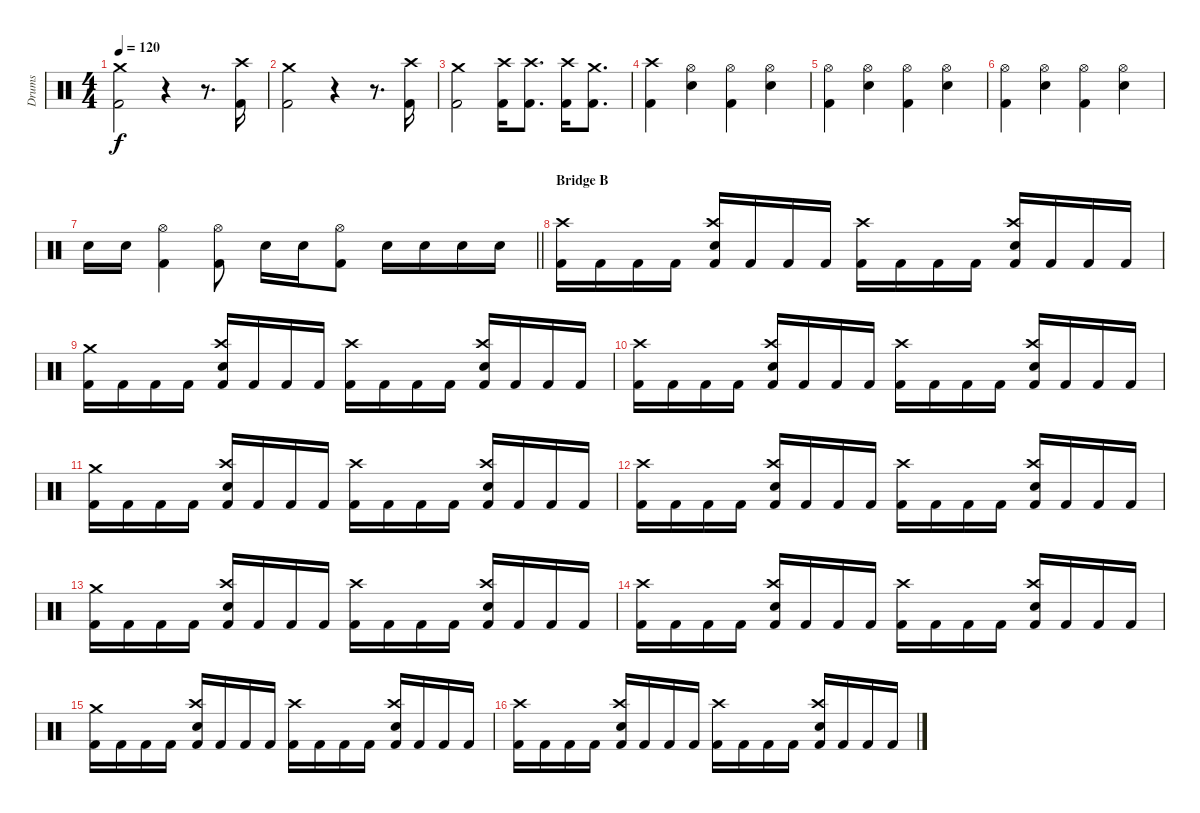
\track ("Drums" "Drums") {instrument percussion}
\staff {score}
\articulation defaults
\ts (4 4)
\tempo 120
\clef neutral
\ks c
("Crash medium (hit)" "Kick (hit) 2").2{dy f} r.4 r.8{d} ("Crash high (hit)" "Kick (hit) 2").16 |
("Crash medium (hit)" "Kick (hit) 2").2 r.4 r.8{d} ("Crash high (hit)" "Kick (hit) 2").16 |
("Crash medium (hit)" "Kick (hit) 2").2 ("Crash high (hit)" "Kick (hit) 2").16 ("Crash high (hit)" "Kick (hit) 2").8{d} ("Crash high (hit)" "Kick (hit) 2").16 ("Crash medium (hit)" "Kick (hit) 2").8{d} |
("Crash high (hit)" "Kick (hit) 2").4 ("Hi-Hat (open)" "Snare (hit) 2").4 ("Hi-Hat (open)" "Kick (hit) 2").4 ("Hi-Hat (open)" "Snare (hit) 2").4 |
("Hi-Hat (open)" "Kick (hit) 2").4 ("Hi-Hat (open)" "Snare (hit) 2").4 ("Hi-Hat (open)" "Kick (hit) 2").4 ("Hi-Hat (open)" "Snare (hit) 2").4 |
("Hi-Hat (open)" "Kick (hit) 2").4 ("Hi-Hat (open)" "Snare (hit) 2").4 ("Hi-Hat (open)" "Kick (hit) 2").4 ("Hi-Hat (open)" "Snare (hit) 2").4 |
\barLineRight lightlight "Snare (hit) 2".16 "Snare (hit) 2".16
("Hi-Hat (open)" "Kick (hit) 2").4 ("Hi-Hat (open)" "Kick (hit) 2").8 "Snare (hit) 2".16 "Snare (hit) 2".16 ("Hi-Hat (open)" "Kick (hit) 2").8 "Snare (hit) 2".16 "Snare (hit) 2".16 "Snare (hit) 2".16 "Snare (hit) 2".16 |
\section ("" "Bridge B")
("Crash high (hit)" "Kick (hit) 2").16 "Kick (hit) 2".16 "Kick (hit) 2".16 "Kick (hit) 2".16 ("Crash high (hit)" "Snare (hit) 2" "Kick (hit) 2").16 "Kick (hit) 2".16 "Kick (hit) 2".16 "Kick (hit) 2".16 ("Crash high (hit)" "Kick (hit) 2").16 "Kick (hit) 2".16 "Kick (hit) 2".16 "Kick (hit) 2".16 ("Crash high (hit)" "Snare (hit) 2" "Kick (hit) 2").16 "Kick (hit) 2".16 "Kick (hit) 2".16 "Kick (hit) 2".16 |
("Crash medium (hit)" "Kick (hit) 2").16 "Kick (hit) 2".16 "Kick (hit) 2".16 "Kick (hit) 2".16 ("Crash high (hit)" "Snare (hit) 2" "Kick (hit) 2").16 "Kick (hit) 2".16 "Kick (hit) 2".16 "Kick (hit) 2".16 ("Crash high (hit)" "Kick (hit) 2").16 "Kick (hit) 2".16 "Kick (hit) 2".16 "Kick (hit) 2".16 ("Crash high (hit)" "Snare (hit) 2" "Kick (hit) 2").16 "Kick (hit) 2".16 "Kick (hit) 2".16 "Kick (hit) 2".16 |
("Crash high (hit)" "Kick (hit) 2").16 "Kick (hit) 2".16 "Kick (hit) 2".16 "Kick (hit) 2".16 ("Crash high (hit)" "Snare (hit) 2" "Kick (hit) 2").16 "Kick (hit) 2".16 "Kick (hit) 2".16 "Kick (hit) 2".16 ("Crash high (hit)" "Kick (hit) 2").16 "Kick (hit) 2".16 "Kick (hit) 2".16 "Kick (hit) 2".16 ("Crash high (hit)" "Snare (hit) 2" "Kick (hit) 2").16 "Kick (hit) 2".16 "Kick (hit) 2".16 "Kick (hit) 2".16 |
("Crash medium (hit)" "Kick (hit) 2").16 "Kick (hit) 2".16 "Kick (hit) 2".16 "Kick (hit) 2".16 ("Crash high (hit)" "Snare (hit) 2" "Kick (hit) 2").16 "Kick (hit) 2".16 "Kick (hit) 2".16 "Kick (hit) 2".16 ("Crash high (hit)" "Kick (hit) 2").16 "Kick (hit) 2".16 "Kick (hit) 2".16 "Kick (hit) 2".16 ("Crash high (hit)" "Snare (hit) 2" "Kick (hit) 2").16 "Kick (hit) 2".16 "Kick (hit) 2".16 "Kick (hit) 2".16 |
("Crash high (hit)" "Kick (hit) 2").16 "Kick (hit) 2".16 "Kick (hit) 2".16 "Kick (hit) 2".16 ("Crash high (hit)" "Snare (hit) 2" "Kick (hit) 2").16 "Kick (hit) 2".16 "Kick (hit) 2".16 "Kick (hit) 2".16 ("Crash high (hit)" "Kick (hit) 2").16 "Kick (hit) 2".16 "Kick (hit) 2".16 "Kick (hit) 2".16 ("Crash high (hit)" "Snare (hit) 2" "Kick (hit) 2").16 "Kick (hit) 2".16 "Kick (hit) 2".16 "Kick (hit) 2".16 |
("Crash medium (hit)" "Kick (hit) 2").16 "Kick (hit) 2".16 "Kick (hit) 2".16 "Kick (hit) 2".16 ("Crash high (hit)" "Snare (hit) 2" "Kick (hit) 2").16 "Kick (hit) 2".16 "Kick (hit) 2".16 "Kick (hit) 2".16 ("Crash high (hit)" "Kick (hit) 2").16 "Kick (hit) 2".16 "Kick (hit) 2".16 "Kick (hit) 2".16 ("Crash high (hit)" "Snare (hit) 2" "Kick (hit) 2").16 "Kick (hit) 2".16 "Kick (hit) 2".16 "Kick (hit) 2".16 |
("Crash high (hit)" "Kick (hit) 2").16 "Kick (hit) 2".16 "Kick (hit) 2".16 "Kick (hit) 2".16 ("Crash high (hit)" "Snare (hit) 2" "Kick (hit) 2").16 "Kick (hit) 2".16 "Kick (hit) 2".16 "Kick (hit) 2".16 ("Crash high (hit)" "Kick (hit) 2").16 "Kick (hit) 2".16 "Kick (hit) 2".16 "Kick (hit) 2".16 ("Crash high (hit)" "Snare (hit) 2" "Kick (hit) 2").16 "Kick (hit) 2".16 "Kick (hit) 2".16 "Kick (hit) 2".16 |
("Crash medium (hit)" "Kick (hit) 2").16 "Kick (hit) 2".16 "Kick (hit) 2".16 "Kick (hit) 2".16 ("Crash high (hit)" "Snare (hit) 2" "Kick (hit) 2").16 "Kick (hit) 2".16 "Kick (hit) 2".16 "Kick (hit) 2".16 ("Crash high (hit)" "Kick (hit) 2").16 "Kick (hit) 2".16 "Kick (hit) 2".16 "Kick (hit) 2".16 ("Crash high (hit)" "Snare (hit) 2" "Kick (hit) 2").16 "Kick (hit) 2".16 "Kick (hit) 2".16 "Kick (hit) 2".16 |
("Crash high (hit)" "Kick (hit) 2").16 "Kick (hit) 2".16 "Kick (hit) 2".16 "Kick (hit) 2".16 ("Crash high (hit)" "Snare (hit) 2" "Kick (hit) 2").16 "Kick (hit) 2".16 "Kick (hit) 2".16 "Kick (hit) 2".16 ("Crash high (hit)" "Kick (hit) 2").16 "Kick (hit) 2".16 "Kick (hit) 2".16 "Kick (hit) 2".16 ("Crash high (hit)" "Snare (hit) 2" "Kick (hit) 2").16 "Kick (hit) 2".16 "Kick (hit) 2".16 "Kick (hit) 2".16
